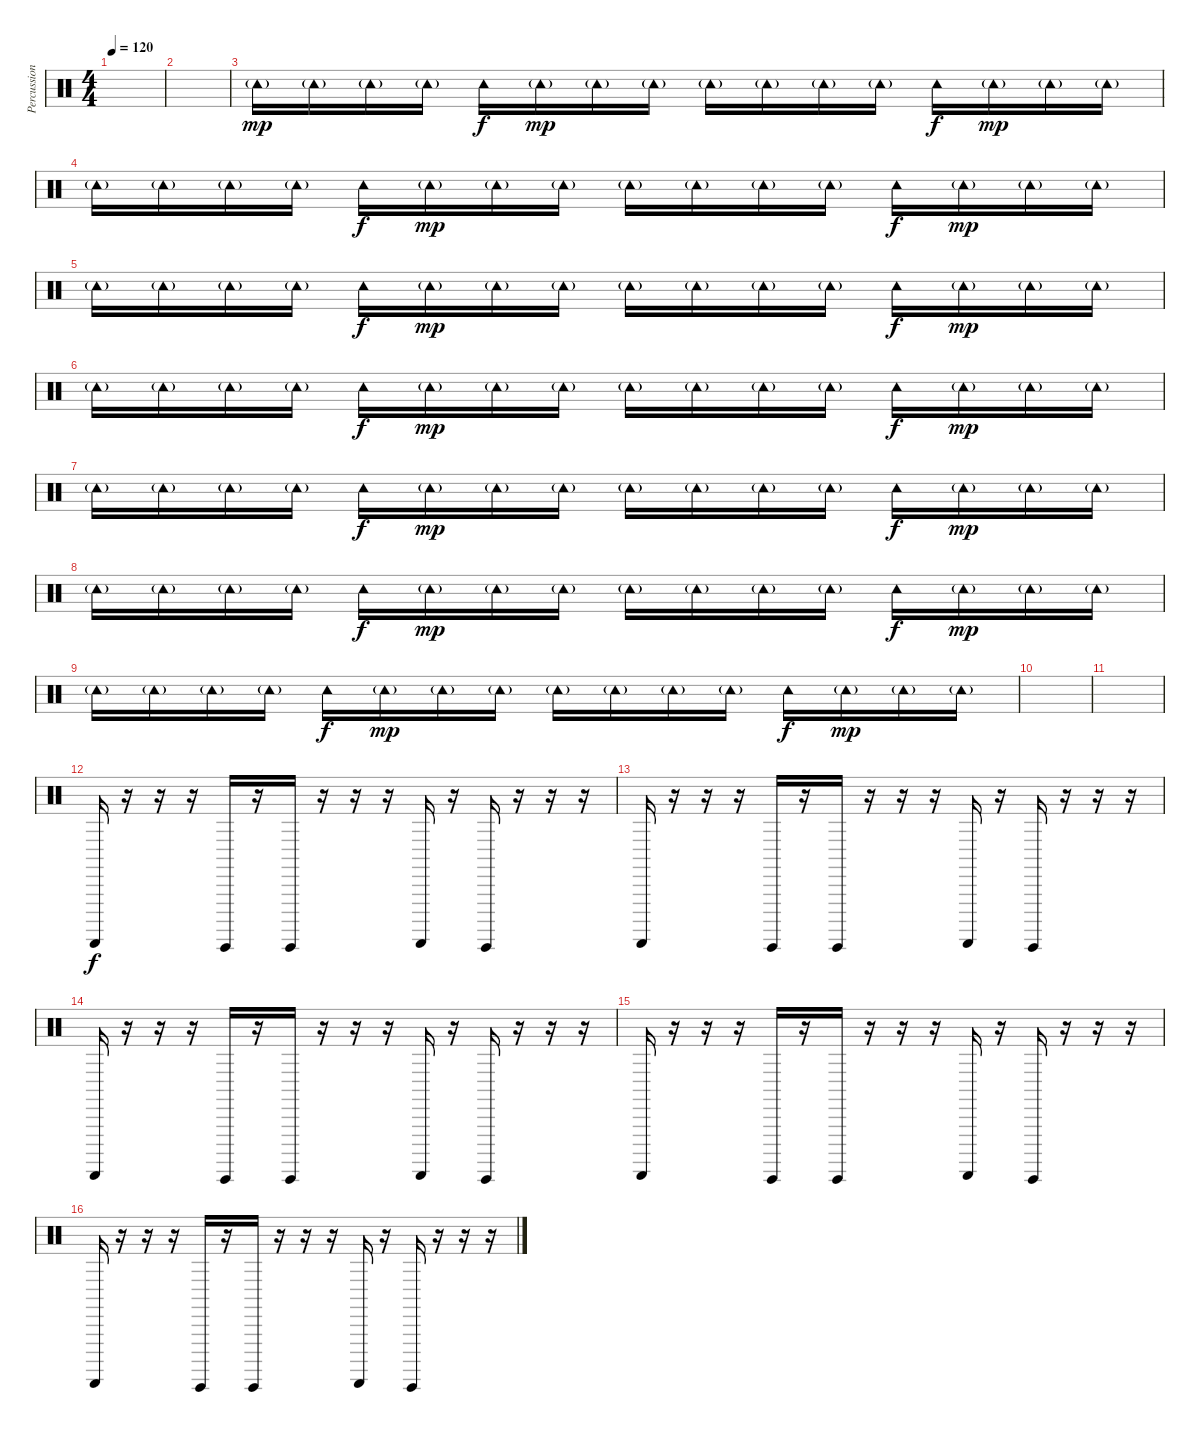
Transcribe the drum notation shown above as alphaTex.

\track ("Percussion" "Percussion") {instrument percussion}
\staff {score}
\articulation defaults
\ts (4 4)
\tempo 120
\clef neutral
\ks c
|
|
"Tambourine (hit)"{g}.16{dy mp} "Tambourine (hit)"{g}.16 "Tambourine (hit)"{g}.16 "Tambourine (hit)"{g}.16 "Tambourine (hit)".16{dy f} "Tambourine (hit)"{g}.16{dy mp} "Tambourine (hit)"{g}.16 "Tambourine (hit)"{g}.16 "Tambourine (hit)"{g}.16 "Tambourine (hit)"{g}.16 "Tambourine (hit)"{g}.16 "Tambourine (hit)"{g}.16 "Tambourine (hit)".16{dy f} "Tambourine (hit)"{g}.16{dy mp} "Tambourine (hit)"{g}.16 "Tambourine (hit)"{g}.16 |
"Tambourine (hit)"{g}.16 "Tambourine (hit)"{g}.16 "Tambourine (hit)"{g}.16 "Tambourine (hit)"{g}.16 "Tambourine (hit)".16{dy f} "Tambourine (hit)"{g}.16{dy mp} "Tambourine (hit)"{g}.16 "Tambourine (hit)"{g}.16 "Tambourine (hit)"{g}.16 "Tambourine (hit)"{g}.16 "Tambourine (hit)"{g}.16 "Tambourine (hit)"{g}.16 "Tambourine (hit)".16{dy f} "Tambourine (hit)"{g}.16{dy mp} "Tambourine (hit)"{g}.16 "Tambourine (hit)"{g}.16 |
"Tambourine (hit)"{g}.16 "Tambourine (hit)"{g}.16 "Tambourine (hit)"{g}.16 "Tambourine (hit)"{g}.16 "Tambourine (hit)".16{dy f} "Tambourine (hit)"{g}.16{dy mp} "Tambourine (hit)"{g}.16 "Tambourine (hit)"{g}.16 "Tambourine (hit)"{g}.16 "Tambourine (hit)"{g}.16 "Tambourine (hit)"{g}.16 "Tambourine (hit)"{g}.16 "Tambourine (hit)".16{dy f} "Tambourine (hit)"{g}.16{dy mp} "Tambourine (hit)"{g}.16 "Tambourine (hit)"{g}.16 |
"Tambourine (hit)"{g}.16 "Tambourine (hit)"{g}.16 "Tambourine (hit)"{g}.16 "Tambourine (hit)"{g}.16 "Tambourine (hit)".16{dy f} "Tambourine (hit)"{g}.16{dy mp} "Tambourine (hit)"{g}.16 "Tambourine (hit)"{g}.16 "Tambourine (hit)"{g}.16 "Tambourine (hit)"{g}.16 "Tambourine (hit)"{g}.16 "Tambourine (hit)"{g}.16 "Tambourine (hit)".16{dy f} "Tambourine (hit)"{g}.16{dy mp} "Tambourine (hit)"{g}.16 "Tambourine (hit)"{g}.16 |
"Tambourine (hit)"{g}.16 "Tambourine (hit)"{g}.16 "Tambourine (hit)"{g}.16 "Tambourine (hit)"{g}.16 "Tambourine (hit)".16{dy f} "Tambourine (hit)"{g}.16{dy mp} "Tambourine (hit)"{g}.16 "Tambourine (hit)"{g}.16 "Tambourine (hit)"{g}.16 "Tambourine (hit)"{g}.16 "Tambourine (hit)"{g}.16 "Tambourine (hit)"{g}.16 "Tambourine (hit)".16{dy f} "Tambourine (hit)"{g}.16{dy mp} "Tambourine (hit)"{g}.16 "Tambourine (hit)"{g}.16 |
"Tambourine (hit)"{g}.16 "Tambourine (hit)"{g}.16 "Tambourine (hit)"{g}.16 "Tambourine (hit)"{g}.16 "Tambourine (hit)".16{dy f} "Tambourine (hit)"{g}.16{dy mp} "Tambourine (hit)"{g}.16 "Tambourine (hit)"{g}.16 "Tambourine (hit)"{g}.16 "Tambourine (hit)"{g}.16 "Tambourine (hit)"{g}.16 "Tambourine (hit)"{g}.16 "Tambourine (hit)".16{dy f} "Tambourine (hit)"{g}.16{dy mp} "Tambourine (hit)"{g}.16 "Tambourine (hit)"{g}.16 |
"Tambourine (hit)"{g}.16 "Tambourine (hit)"{g}.16 "Tambourine (hit)"{g}.16 "Tambourine (hit)"{g}.16 "Tambourine (hit)".16{dy f} "Tambourine (hit)"{g}.16{dy mp} "Tambourine (hit)"{g}.16 "Tambourine (hit)"{g}.16 "Tambourine (hit)"{g}.16 "Tambourine (hit)"{g}.16 "Tambourine (hit)"{g}.16 "Tambourine (hit)"{g}.16 "Tambourine (hit)".16{dy f} "Tambourine (hit)"{g}.16{dy mp} "Tambourine (hit)"{g}.16 "Tambourine (hit)"{g}.16 |
|
|
"Guiro (scrap-return)".16{dy f} r.16 r.16 r.16 "Guiro (hit)".16 r.16 "Guiro (hit)".16 r.16 r.16 r.16 "Guiro (scrap-return)".16 r.16 "Guiro (hit)".16 r.16 r.16 r.16 |
"Guiro (scrap-return)".16 r.16 r.16 r.16 "Guiro (hit)".16 r.16 "Guiro (hit)".16 r.16 r.16 r.16 "Guiro (scrap-return)".16 r.16 "Guiro (hit)".16 r.16 r.16 r.16 |
"Guiro (scrap-return)".16 r.16 r.16 r.16 "Guiro (hit)".16 r.16 "Guiro (hit)".16 r.16 r.16 r.16 "Guiro (scrap-return)".16 r.16 "Guiro (hit)".16 r.16 r.16 r.16 |
"Guiro (scrap-return)".16 r.16 r.16 r.16 "Guiro (hit)".16 r.16 "Guiro (hit)".16 r.16 r.16 r.16 "Guiro (scrap-return)".16 r.16 "Guiro (hit)".16 r.16 r.16 r.16 |
"Guiro (scrap-return)".16 r.16 r.16 r.16 "Guiro (hit)".16 r.16 "Guiro (hit)".16 r.16 r.16 r.16 "Guiro (scrap-return)".16 r.16 "Guiro (hit)".16 r.16 r.16 r.16
